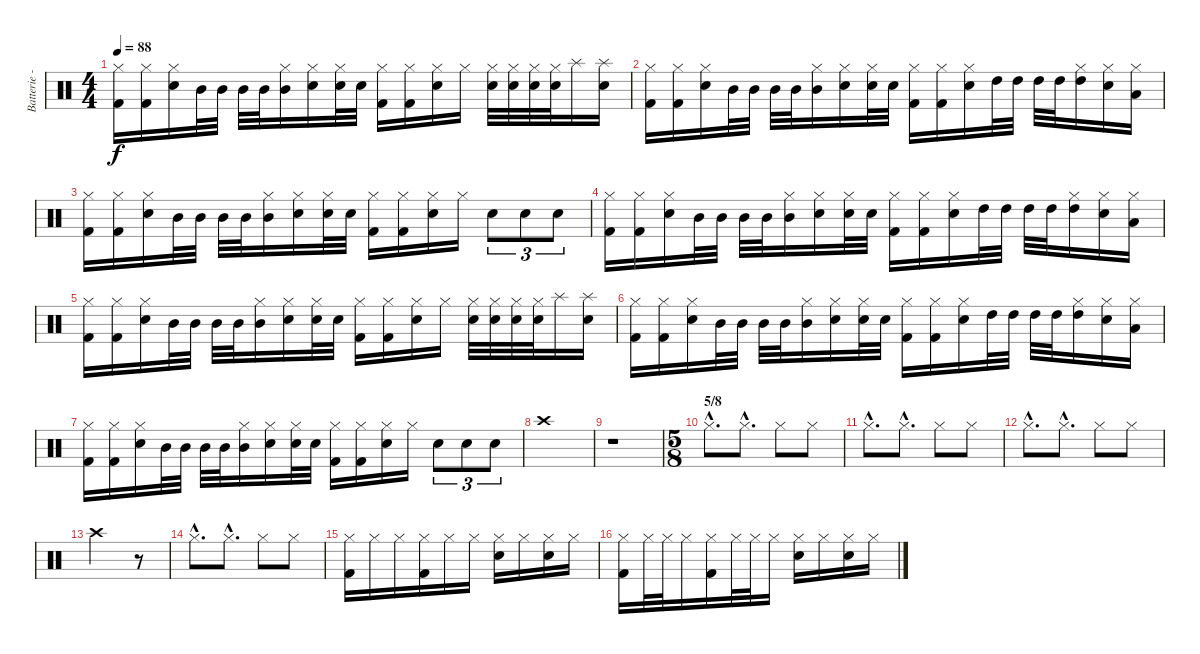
\track ("Batterie - Franz'" "Batterie -") {instrument percussion}
\staff {score}
\articulation defaults
\ts (4 4)
\tempo 88
\clef neutral
\ks c
("Hi-Hat (closed)" "Kick (hit) 2").16{dy f} ("Hi-Hat (closed)" "Kick (hit) 2").16 ("Hi-Hat (closed)" "Electric Snare (hit)").16 "Mid Tom (hit)".32 "Mid Tom (hit)".32 "Mid Tom (hit)".32 "Mid Tom (hit)".32 ("Hi-Hat (closed)" "Mid Tom (hit)").16 ("Hi-Hat (closed)" "Electric Snare (hit)").16 ("Hi-Hat (closed)" "Electric Snare (hit)").32 "Electric Snare (hit)".32 ("Hi-Hat (closed)" "Kick (hit) 2").16 ("Hi-Hat (closed)" "Kick (hit) 2").16 ("Hi-Hat (closed)" "Electric Snare (hit)").16 "Hi-Hat (closed)".16 ("Hi-Hat (closed)" "Electric Snare (hit)").32 ("Hi-Hat (closed)" "Electric Snare (hit)").32 ("Hi-Hat (closed)" "Electric Snare (hit)").32 ("Hi-Hat (closed)" "Electric Snare (hit)").32 "Splash (hit)".16 ("Splash (hit)" "Electric Snare (hit)").16 |
("Hi-Hat (closed)" "Kick (hit) 2").16 ("Hi-Hat (closed)" "Kick (hit) 2").16 ("Hi-Hat (closed)" "Electric Snare (hit)").16 "Mid Tom (hit)".32 "Mid Tom (hit)".32 "Mid Tom (hit)".32 "Mid Tom (hit)".32 ("Hi-Hat (closed)" "Mid Tom (hit)").16 ("Hi-Hat (closed)" "Electric Snare (hit)").16 ("Hi-Hat (closed)" "Electric Snare (hit)").32 "Electric Snare (hit)".32 ("Hi-Hat (closed)" "Kick (hit) 2").16 ("Hi-Hat (closed)" "Kick (hit) 2").16 ("Hi-Hat (closed)" "Electric Snare (hit)").16 "High Tom (hit)".32 "High Tom (hit)".32 "High Tom (hit)".32 "High Tom (hit)".32 ("Hi-Hat (closed)" "High Tom (hit)").16 ("Hi-Hat (closed)" "Electric Snare (hit)").16 ("Hi-Hat (closed)" "Low Tom (hit)").16 |
("Hi-Hat (closed)" "Kick (hit) 2").16 ("Hi-Hat (closed)" "Kick (hit) 2").16 ("Hi-Hat (closed)" "Electric Snare (hit)").16 "Mid Tom (hit)".32 "Mid Tom (hit)".32 "Mid Tom (hit)".32 "Mid Tom (hit)".32 ("Hi-Hat (closed)" "Mid Tom (hit)").16 ("Hi-Hat (closed)" "Electric Snare (hit)").16 ("Hi-Hat (closed)" "Electric Snare (hit)").32 "Electric Snare (hit)".32 ("Hi-Hat (closed)" "Kick (hit) 2").16 ("Hi-Hat (closed)" "Kick (hit) 2").16 ("Hi-Hat (closed)" "Electric Snare (hit)").16 "Hi-Hat (closed)".16 "Electric Snare (hit)".8{tu (3 2)} "Electric Snare (hit)".8{tu (3 2)} "Electric Snare (hit)".8{tu (3 2)} |
("Hi-Hat (closed)" "Kick (hit) 2").16 ("Hi-Hat (closed)" "Kick (hit) 2").16 ("Hi-Hat (closed)" "Electric Snare (hit)").16 "Mid Tom (hit)".32 "Mid Tom (hit)".32 "Mid Tom (hit)".32 "Mid Tom (hit)".32 ("Hi-Hat (closed)" "Mid Tom (hit)").16 ("Hi-Hat (closed)" "Electric Snare (hit)").16 ("Hi-Hat (closed)" "Electric Snare (hit)").32 "Electric Snare (hit)".32 ("Hi-Hat (closed)" "Kick (hit) 2").16 ("Hi-Hat (closed)" "Kick (hit) 2").16 ("Hi-Hat (closed)" "Electric Snare (hit)").16 "High Tom (hit)".32 "High Tom (hit)".32 "High Tom (hit)".32 "High Tom (hit)".32 ("Hi-Hat (closed)" "High Tom (hit)").16 ("Hi-Hat (closed)" "Electric Snare (hit)").16 ("Hi-Hat (closed)" "Low Tom (hit)").16 |
("Hi-Hat (closed)" "Kick (hit) 2").16 ("Hi-Hat (closed)" "Kick (hit) 2").16 ("Hi-Hat (closed)" "Electric Snare (hit)").16 "Mid Tom (hit)".32 "Mid Tom (hit)".32 "Mid Tom (hit)".32 "Mid Tom (hit)".32 ("Hi-Hat (closed)" "Mid Tom (hit)").16 ("Hi-Hat (closed)" "Electric Snare (hit)").16 ("Hi-Hat (closed)" "Electric Snare (hit)").32 "Electric Snare (hit)".32 ("Hi-Hat (closed)" "Kick (hit) 2").16 ("Hi-Hat (closed)" "Kick (hit) 2").16 ("Hi-Hat (closed)" "Electric Snare (hit)").16 "Hi-Hat (closed)".16 ("Hi-Hat (closed)" "Electric Snare (hit)").32 ("Hi-Hat (closed)" "Electric Snare (hit)").32 ("Hi-Hat (closed)" "Electric Snare (hit)").32 ("Hi-Hat (closed)" "Electric Snare (hit)").32 "Splash (hit)".16 ("Splash (hit)" "Electric Snare (hit)").16 |
("Hi-Hat (closed)" "Kick (hit) 2").16 ("Hi-Hat (closed)" "Kick (hit) 2").16 ("Hi-Hat (closed)" "Electric Snare (hit)").16 "Mid Tom (hit)".32 "Mid Tom (hit)".32 "Mid Tom (hit)".32 "Mid Tom (hit)".32 ("Hi-Hat (closed)" "Mid Tom (hit)").16 ("Hi-Hat (closed)" "Electric Snare (hit)").16 ("Hi-Hat (closed)" "Electric Snare (hit)").32 "Electric Snare (hit)".32 ("Hi-Hat (closed)" "Kick (hit) 2").16 ("Hi-Hat (closed)" "Kick (hit) 2").16 ("Hi-Hat (closed)" "Electric Snare (hit)").16 "High Tom (hit)".32 "High Tom (hit)".32 "High Tom (hit)".32 "High Tom (hit)".32 ("Hi-Hat (closed)" "High Tom (hit)").16 ("Hi-Hat (closed)" "Electric Snare (hit)").16 ("Hi-Hat (closed)" "Low Tom (hit)").16 |
("Hi-Hat (closed)" "Kick (hit) 2").16 ("Hi-Hat (closed)" "Kick (hit) 2").16 ("Hi-Hat (closed)" "Electric Snare (hit)").16 "Mid Tom (hit)".32 "Mid Tom (hit)".32 "Mid Tom (hit)".32 "Mid Tom (hit)".32 ("Hi-Hat (closed)" "Mid Tom (hit)").16 ("Hi-Hat (closed)" "Electric Snare (hit)").16 ("Hi-Hat (closed)" "Electric Snare (hit)").32 "Electric Snare (hit)".32 ("Hi-Hat (closed)" "Kick (hit) 2").16 ("Hi-Hat (closed)" "Kick (hit) 2").16 ("Hi-Hat (closed)" "Electric Snare (hit)").16 "Hi-Hat (closed)".16 "Electric Snare (hit)".8{tu (3 2)} "Electric Snare (hit)".8{tu (3 2)} "Electric Snare (hit)".8{tu (3 2)} |
"Crash high (hit)".1 |
r.1 |
\ts (5 8)
\section ("" "5/8")
"Hi-Hat (closed)"{hac}.8{d} "Hi-Hat (closed)"{hac}.8{d} "Hi-Hat (closed)".8 "Hi-Hat (closed)".8 |
"Hi-Hat (closed)"{hac}.8{d} "Hi-Hat (closed)"{hac}.8{d} "Hi-Hat (closed)".8 "Hi-Hat (closed)".8 |
"Hi-Hat (closed)"{hac}.8{d} "Hi-Hat (closed)"{hac}.8{d} "Hi-Hat (closed)".8 "Hi-Hat (closed)".8 |
"Crash high (hit)".2 r.8 |
"Hi-Hat (closed)"{hac}.8{d} "Hi-Hat (closed)"{hac}.8{d} "Hi-Hat (closed)".8 "Hi-Hat (closed)".8 |
("Hi-Hat (closed)" "Kick (hit) 2").16 "Hi-Hat (closed)".16 "Hi-Hat (closed)".16 ("Hi-Hat (closed)" "Kick (hit) 2").16 "Hi-Hat (closed)".16 "Hi-Hat (closed)".16 ("Hi-Hat (closed)" "Electric Snare (hit)").16 "Hi-Hat (closed)".16 ("Hi-Hat (closed)" "Electric Snare (hit)").16 "Hi-Hat (closed)".16 |
("Hi-Hat (closed)" "Kick (hit) 2").16 "Hi-Hat (closed)".32 "Hi-Hat (closed)".32 "Hi-Hat (closed)".16 ("Hi-Hat (closed)" "Kick (hit) 2").16 "Hi-Hat (closed)".32 "Hi-Hat (closed)".32 "Hi-Hat (closed)".16 ("Hi-Hat (closed)" "Electric Snare (hit)").16 "Hi-Hat (closed)".16 ("Hi-Hat (closed)" "Electric Snare (hit)").16 "Hi-Hat (closed)".16
